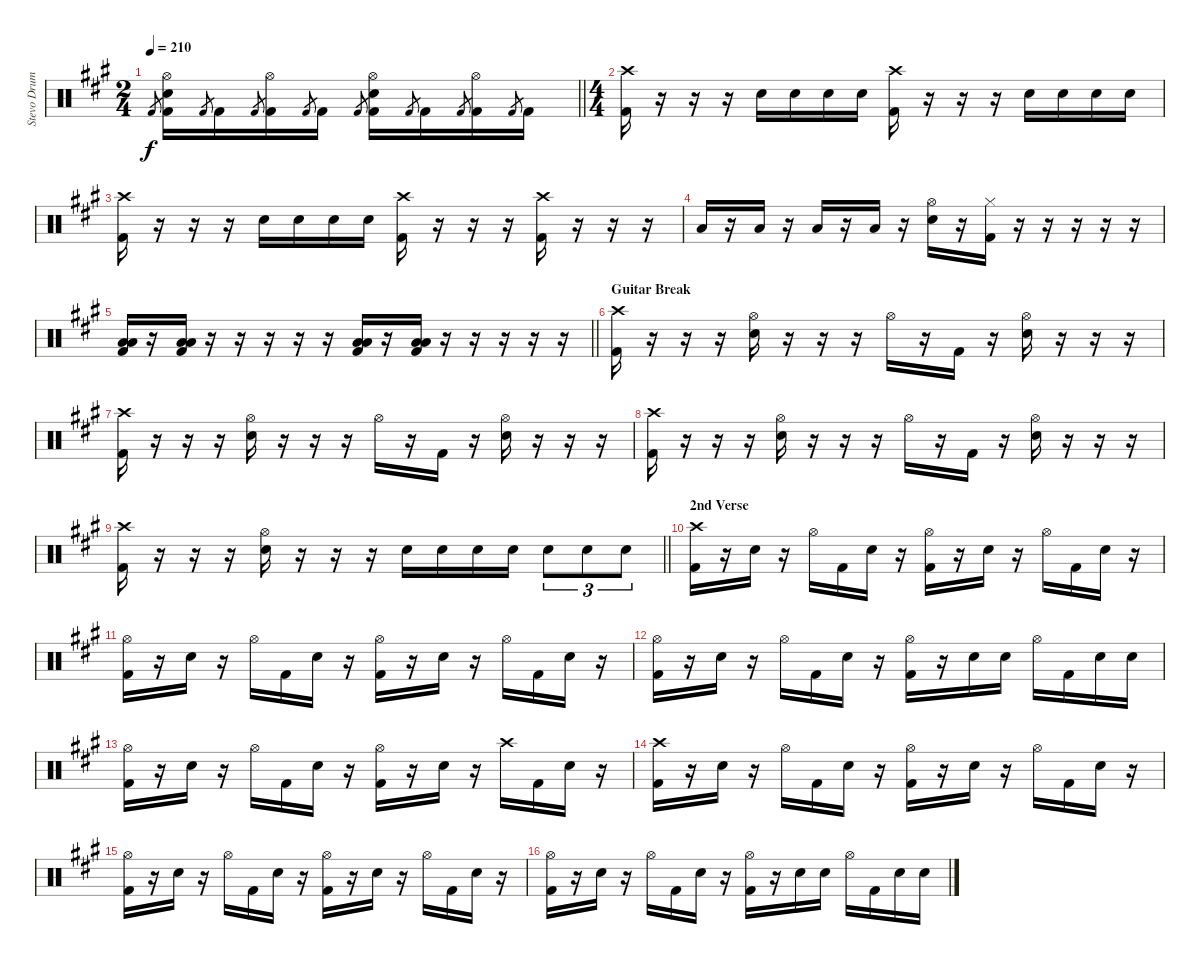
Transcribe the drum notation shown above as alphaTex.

\track ("Stevo Drums" "Stevo Drum") {instrument percussion}
\staff {score}
\articulation defaults
\ts (2 4)
\tempo 210
\clef neutral
\barLineRight lightlight
\ks a "Kick (hit) 2".8{gr dy f}
("Hi-Hat (open)" "Snare (hit) 2" "Kick (hit) 2").16 "Kick (hit) 2".8{gr} "Kick (hit) 2".16 "Kick (hit) 2".8{gr} ("Hi-Hat (open)" "Kick (hit) 2").16 "Kick (hit) 2".8{gr} "Kick (hit) 2".16 "Kick (hit) 2".8{gr} ("Hi-Hat (open)" "Snare (hit) 2" "Kick (hit) 2").16 "Kick (hit) 2".8{gr} "Kick (hit) 2".16 "Kick (hit) 2".8{gr} ("Hi-Hat (open)" "Kick (hit) 2").16 "Kick (hit) 2".8{gr} "Kick (hit) 2".16 |
\ts (4 4)
("Crash high (hit)" "Kick (hit) 2").16 r.16 r.16 r.16 "Snare (hit) 2".16 "Snare (hit) 2".16 "Snare (hit) 2".16 "Snare (hit) 2".16 ("Crash high (hit)" "Kick (hit) 2").16 r.16 r.16 r.16 "Snare (hit) 2".16 "Snare (hit) 2".16 "Snare (hit) 2".16 "Snare (hit) 2".16 |
("Crash high (hit)" "Kick (hit) 2").16 r.16 r.16 r.16 "Snare (hit) 2".16 "Snare (hit) 2".16 "Snare (hit) 2".16 "Snare (hit) 2".16 ("Crash high (hit)" "Kick (hit) 2").16 r.16 r.16 r.16 ("Crash high (hit)" "Kick (hit) 2").16 r.16 r.16 r.16 |
"Low Floor Tom (hit)".16 r.16 "Low Floor Tom (hit)".16 r.16 "Low Floor Tom (hit)".16 r.16 "Low Floor Tom (hit)".16 r.16 ("Hi-Hat (open)" "Snare (hit) 2").16 r.16 ("Hi-Hat (closed)" "Kick (hit) 2").16 r.16 r.16 r.16 r.16 r.16 |
\barLineRight lightlight
("Low Tom (hit)" "Low Floor Tom (hit)" "Kick (hit) 2").16 r.16 ("Low Tom (hit)" "Low Floor Tom (hit)" "Kick (hit) 2").16 r.16 r.16 r.16 r.16 r.16 ("Low Tom (hit)" "Low Floor Tom (hit)" "Kick (hit) 2").16 r.16 ("Low Tom (hit)" "Low Floor Tom (hit)" "Kick (hit) 2").16 r.16 r.16 r.16 r.16 r.16 |
\section ("" "Guitar Break")
("Crash high (hit)" "Kick (hit) 2").16 r.16 r.16 r.16 ("Hi-Hat (open)" "Snare (hit) 2").16 r.16 r.16 r.16 "Hi-Hat (open)".16 r.16 "Kick (hit) 2".16 r.16 ("Hi-Hat (open)" "Snare (hit) 2").16 r.16 r.16 r.16 |
("Crash high (hit)" "Kick (hit) 2").16 r.16 r.16 r.16 ("Hi-Hat (open)" "Snare (hit) 2").16 r.16 r.16 r.16 "Hi-Hat (open)".16 r.16 "Kick (hit) 2".16 r.16 ("Hi-Hat (open)" "Snare (hit) 2").16 r.16 r.16 r.16 |
("Crash high (hit)" "Kick (hit) 2").16 r.16 r.16 r.16 ("Hi-Hat (open)" "Snare (hit) 2").16 r.16 r.16 r.16 "Hi-Hat (open)".16 r.16 "Kick (hit) 2".16 r.16 ("Hi-Hat (open)" "Snare (hit) 2").16 r.16 r.16 r.16 |
\barLineRight lightlight
("Crash high (hit)" "Kick (hit) 2").16 r.16 r.16 r.16 ("Hi-Hat (open)" "Snare (hit) 2").16 r.16 r.16 r.16 "Snare (hit) 2".16 "Snare (hit) 2".16 "Snare (hit) 2".16 "Snare (hit) 2".16 "Snare (hit) 2".8{tu (3 2)} "Snare (hit) 2".8{tu (3 2)} "Snare (hit) 2".8{tu (3 2)} |
\section ("" "2nd Verse ")
("Crash high (hit)" "Kick (hit) 2").16 r.16 "Snare (hit) 2".16 r.16 "Hi-Hat (open)".16 "Kick (hit) 2".16 "Snare (hit) 2".16 r.16 ("Hi-Hat (open)" "Kick (hit) 2").16 r.16 "Snare (hit) 2".16 r.16 "Hi-Hat (open)".16 "Kick (hit) 2".16 "Snare (hit) 2".16 r.16 |
("Hi-Hat (open)" "Kick (hit) 2").16 r.16 "Snare (hit) 2".16 r.16 "Hi-Hat (open)".16 "Kick (hit) 2".16 "Snare (hit) 2".16 r.16 ("Hi-Hat (open)" "Kick (hit) 2").16 r.16 "Snare (hit) 2".16 r.16 "Hi-Hat (open)".16 "Kick (hit) 2".16 "Snare (hit) 2".16 r.16 |
("Hi-Hat (open)" "Kick (hit) 2").16 r.16 "Snare (hit) 2".16 r.16 "Hi-Hat (open)".16 "Kick (hit) 2".16 "Snare (hit) 2".16 r.16 ("Hi-Hat (open)" "Kick (hit) 2").16 r.16 "Snare (hit) 2".16 "Snare (hit) 2".16 "Hi-Hat (open)".16 "Kick (hit) 2".16 "Snare (hit) 2".16 "Snare (hit) 2".16 |
("Hi-Hat (open)" "Kick (hit) 2").16 r.16 "Snare (hit) 2".16 r.16 "Hi-Hat (open)".16 "Kick (hit) 2".16 "Snare (hit) 2".16 r.16 ("Hi-Hat (open)" "Kick (hit) 2").16 r.16 "Snare (hit) 2".16 r.16 "Crash high (hit)".16 "Kick (hit) 2".16 "Snare (hit) 2".16 r.16 |
("Crash high (hit)" "Kick (hit) 2").16 r.16 "Snare (hit) 2".16 r.16 "Hi-Hat (open)".16 "Kick (hit) 2".16 "Snare (hit) 2".16 r.16 ("Hi-Hat (open)" "Kick (hit) 2").16 r.16 "Snare (hit) 2".16 r.16 "Hi-Hat (open)".16 "Kick (hit) 2".16 "Snare (hit) 2".16 r.16 |
("Hi-Hat (open)" "Kick (hit) 2").16 r.16 "Snare (hit) 2".16 r.16 "Hi-Hat (open)".16 "Kick (hit) 2".16 "Snare (hit) 2".16 r.16 ("Hi-Hat (open)" "Kick (hit) 2").16 r.16 "Snare (hit) 2".16 r.16 "Hi-Hat (open)".16 "Kick (hit) 2".16 "Snare (hit) 2".16 r.16 |
("Hi-Hat (open)" "Kick (hit) 2").16 r.16 "Snare (hit) 2".16 r.16 "Hi-Hat (open)".16 "Kick (hit) 2".16 "Snare (hit) 2".16 r.16 ("Hi-Hat (open)" "Kick (hit) 2").16 r.16 "Snare (hit) 2".16 "Snare (hit) 2".16 "Hi-Hat (open)".16 "Kick (hit) 2".16 "Snare (hit) 2".16 "Snare (hit) 2".16
